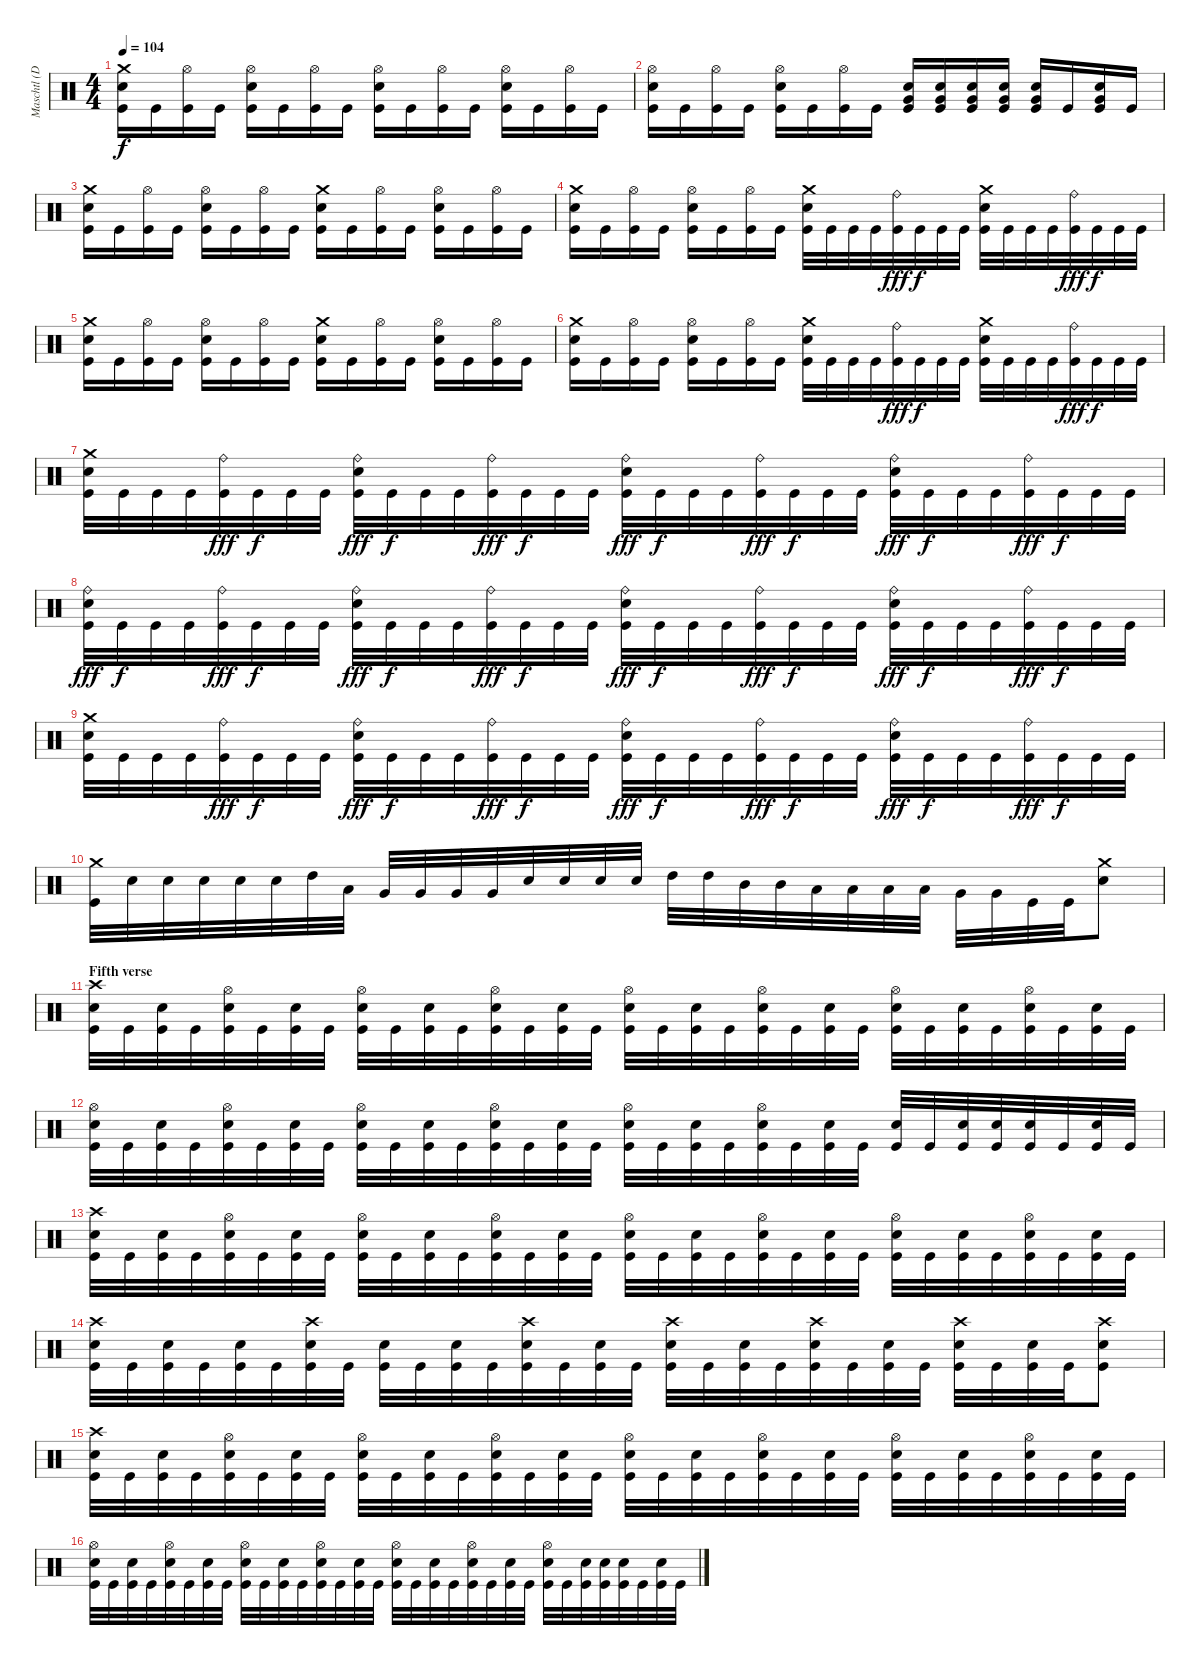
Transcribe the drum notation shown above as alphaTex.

\track ("Maschtl (Drums)" "Maschtl (D") {instrument percussion}
\staff {score}
\articulation defaults
\ts (4 4)
\tempo 104
\clef neutral
\ks c
("Crash medium (hit)" "Electric Snare (hit)" "Kick (hit)").16{dy f} "Kick (hit)".16 ("Hi-Hat (open)" "Kick (hit)").16 "Kick (hit)".16 ("Hi-Hat (open)" "Electric Snare (hit)" "Kick (hit)").16 "Kick (hit)".16 ("Hi-Hat (open)" "Kick (hit)").16 "Kick (hit)".16 ("Hi-Hat (open)" "Electric Snare (hit)" "Kick (hit)").16 "Kick (hit)".16 ("Hi-Hat (open)" "Kick (hit)").16 "Kick (hit)".16 ("Hi-Hat (open)" "Electric Snare (hit)" "Kick (hit)").16 "Kick (hit)".16 ("Hi-Hat (open)" "Kick (hit)").16 "Kick (hit)".16 |
("Hi-Hat (open)" "Electric Snare (hit)" "Kick (hit)").16 "Kick (hit)".16 ("Hi-Hat (open)" "Kick (hit)").16 "Kick (hit)".16 ("Hi-Hat (open)" "Electric Snare (hit)" "Kick (hit)").16 "Kick (hit)".16 ("Hi-Hat (open)" "Kick (hit)").16 "Kick (hit)".16 ("Electric Snare (hit)" "Very Low Tom (hit)" "Kick (hit)").16{bd 60} ("Electric Snare (hit)" "Very Low Tom (hit)" "Kick (hit)").16{bd 60} ("Electric Snare (hit)" "Very Low Tom (hit)" "Kick (hit)").16{bd 60} ("Electric Snare (hit)" "Very Low Tom (hit)" "Kick (hit)").16{bd 60} ("Electric Snare (hit)" "Very Low Tom (hit)" "Kick (hit)").16{bd 60} "Kick (hit)".16 ("Electric Snare (hit)" "Very Low Tom (hit)" "Kick (hit)").16{bd 60} "Kick (hit)".16 |
("Crash medium (hit)" "Electric Snare (hit)" "Kick (hit)").16 "Kick (hit)".16 ("Hi-Hat (open)" "Kick (hit)").16 "Kick (hit)".16 ("Hi-Hat (open)" "Electric Snare (hit)" "Kick (hit)").16 "Kick (hit)".16 ("Hi-Hat (open)" "Kick (hit)").16 "Kick (hit)".16 ("Crash medium (hit)" "Electric Snare (hit)" "Kick (hit)").16 "Kick (hit)".16 ("Hi-Hat (open)" "Kick (hit)").16 "Kick (hit)".16 ("Hi-Hat (open)" "Electric Snare (hit)" "Kick (hit)").16 "Kick (hit)".16 ("Hi-Hat (open)" "Kick (hit)").16 "Kick (hit)".16 |
("Crash medium (hit)" "Electric Snare (hit)" "Kick (hit)").16 "Kick (hit)".16 ("Hi-Hat (open)" "Kick (hit)").16 "Kick (hit)".16 ("Hi-Hat (open)" "Electric Snare (hit)" "Kick (hit)").16 "Kick (hit)".16 ("Hi-Hat (open)" "Kick (hit)").16 "Kick (hit)".16 ("Crash medium (hit)" "Electric Snare (hit)" "Kick (hit)").32 "Kick (hit)".32 "Kick (hit)".32 "Kick (hit)".32 ("Ride (bell)" "Kick (hit)").32{dy fff} "Kick (hit)".32{dy f} "Kick (hit)".32 "Kick (hit)".32 ("Crash medium (hit)" "Electric Snare (hit)" "Kick (hit)").32 "Kick (hit)".32 "Kick (hit)".32 "Kick (hit)".32 ("Ride (bell)" "Kick (hit)").32{dy fff} "Kick (hit)".32{dy f} "Kick (hit)".32 "Kick (hit)".32 |
("Crash medium (hit)" "Electric Snare (hit)" "Kick (hit)").16 "Kick (hit)".16 ("Hi-Hat (open)" "Kick (hit)").16 "Kick (hit)".16 ("Hi-Hat (open)" "Electric Snare (hit)" "Kick (hit)").16 "Kick (hit)".16 ("Hi-Hat (open)" "Kick (hit)").16 "Kick (hit)".16 ("Crash medium (hit)" "Electric Snare (hit)" "Kick (hit)").16 "Kick (hit)".16 ("Hi-Hat (open)" "Kick (hit)").16 "Kick (hit)".16 ("Hi-Hat (open)" "Electric Snare (hit)" "Kick (hit)").16 "Kick (hit)".16 ("Hi-Hat (open)" "Kick (hit)").16 "Kick (hit)".16 |
("Crash medium (hit)" "Electric Snare (hit)" "Kick (hit)").16 "Kick (hit)".16 ("Hi-Hat (open)" "Kick (hit)").16 "Kick (hit)".16 ("Hi-Hat (open)" "Electric Snare (hit)" "Kick (hit)").16 "Kick (hit)".16 ("Hi-Hat (open)" "Kick (hit)").16 "Kick (hit)".16 ("Crash medium (hit)" "Electric Snare (hit)" "Kick (hit)").32 "Kick (hit)".32 "Kick (hit)".32 "Kick (hit)".32 ("Ride (bell)" "Kick (hit)").32{dy fff} "Kick (hit)".32{dy f} "Kick (hit)".32 "Kick (hit)".32 ("Crash medium (hit)" "Electric Snare (hit)" "Kick (hit)").32 "Kick (hit)".32 "Kick (hit)".32 "Kick (hit)".32 ("Ride (bell)" "Kick (hit)").32{dy fff} "Kick (hit)".32{dy f} "Kick (hit)".32 "Kick (hit)".32 |
("Crash medium (hit)" "Electric Snare (hit)" "Kick (hit)").32 "Kick (hit)".32 "Kick (hit)".32 "Kick (hit)".32 ("Ride (bell)" "Kick (hit)").32{dy fff} "Kick (hit)".32{dy f} "Kick (hit)".32 "Kick (hit)".32 ("Ride (bell)" "Electric Snare (hit)" "Kick (hit)").32{dy fff} "Kick (hit)".32{dy f} "Kick (hit)".32 "Kick (hit)".32 ("Ride (bell)" "Kick (hit)").32{dy fff} "Kick (hit)".32{dy f} "Kick (hit)".32 "Kick (hit)".32 ("Ride (bell)" "Electric Snare (hit)" "Kick (hit)").32{dy fff} "Kick (hit)".32{dy f} "Kick (hit)".32 "Kick (hit)".32 ("Ride (bell)" "Kick (hit)").32{dy fff} "Kick (hit)".32{dy f} "Kick (hit)".32 "Kick (hit)".32 ("Ride (bell)" "Electric Snare (hit)" "Kick (hit)").32{dy fff} "Kick (hit)".32{dy f} "Kick (hit)".32 "Kick (hit)".32 ("Ride (bell)" "Kick (hit)").32{dy fff} "Kick (hit)".32{dy f} "Kick (hit)".32 "Kick (hit)".32 |
("Ride (bell)" "Electric Snare (hit)" "Kick (hit)").32{dy fff} "Kick (hit)".32{dy f} "Kick (hit)".32 "Kick (hit)".32 ("Ride (bell)" "Kick (hit)").32{dy fff} "Kick (hit)".32{dy f} "Kick (hit)".32 "Kick (hit)".32 ("Ride (bell)" "Electric Snare (hit)" "Kick (hit)").32{dy fff} "Kick (hit)".32{dy f} "Kick (hit)".32 "Kick (hit)".32 ("Ride (bell)" "Kick (hit)").32{dy fff} "Kick (hit)".32{dy f} "Kick (hit)".32 "Kick (hit)".32 ("Ride (bell)" "Electric Snare (hit)" "Kick (hit)").32{dy fff} "Kick (hit)".32{dy f} "Kick (hit)".32 "Kick (hit)".32 ("Ride (bell)" "Kick (hit)").32{dy fff} "Kick (hit)".32{dy f} "Kick (hit)".32 "Kick (hit)".32 ("Ride (bell)" "Electric Snare (hit)" "Kick (hit)").32{dy fff} "Kick (hit)".32{dy f} "Kick (hit)".32 "Kick (hit)".32 ("Ride (bell)" "Kick (hit)").32{dy fff} "Kick (hit)".32{dy f} "Kick (hit)".32 "Kick (hit)".32 |
("Crash medium (hit)" "Electric Snare (hit)" "Kick (hit)").32 "Kick (hit)".32 "Kick (hit)".32 "Kick (hit)".32 ("Ride (bell)" "Kick (hit)").32{dy fff} "Kick (hit)".32{dy f} "Kick (hit)".32 "Kick (hit)".32 ("Ride (bell)" "Electric Snare (hit)" "Kick (hit)").32{dy fff} "Kick (hit)".32{dy f} "Kick (hit)".32 "Kick (hit)".32 ("Ride (bell)" "Kick (hit)").32{dy fff} "Kick (hit)".32{dy f} "Kick (hit)".32 "Kick (hit)".32 ("Ride (bell)" "Electric Snare (hit)" "Kick (hit)").32{dy fff} "Kick (hit)".32{dy f} "Kick (hit)".32 "Kick (hit)".32 ("Ride (bell)" "Kick (hit)").32{dy fff} "Kick (hit)".32{dy f} "Kick (hit)".32 "Kick (hit)".32 ("Ride (bell)" "Electric Snare (hit)" "Kick (hit)").32{dy fff} "Kick (hit)".32{dy f} "Kick (hit)".32 "Kick (hit)".32 ("Ride (bell)" "Kick (hit)").32{dy fff} "Kick (hit)".32{dy f} "Kick (hit)".32 "Kick (hit)".32 |
("Crash medium (hit)" "Kick (hit)").32 "Electric Snare (hit)".32 "Electric Snare (hit)".32 "Electric Snare (hit)".32 "Electric Snare (hit)".32 "Electric Snare (hit)".32 "High Tom (hit)".32 "Low Tom (hit)".32 "Very Low Tom (hit)".32 "Very Low Tom (hit)".32 "Very Low Tom (hit)".32 "Very Low Tom (hit)".32 "Electric Snare (hit)".32 "Electric Snare (hit)".32 "Electric Snare (hit)".32 "Electric Snare (hit)".32 "High Tom (hit)".32 "High Tom (hit)".32 "Mid Tom (hit)".32 "Mid Tom (hit)".32 "Low Tom (hit)".32 "Low Tom (hit)".32 "Low Tom (hit)".32 "Low Tom (hit)".32 "Very Low Tom (hit)".32 "Very Low Tom (hit)".32 "Kick (hit)".32 "Kick (hit)".32 ("Crash medium (hit)" "Electric Snare (hit)").8 |
\section ("" "Fifth verse")
("Crash high (hit)" "Electric Snare (hit)" "Kick (hit)").32 "Kick (hit)".32 ("Electric Snare (hit)" "Kick (hit)").32 "Kick (hit)".32 ("Hi-Hat (open)" "Electric Snare (hit)" "Kick (hit)").32 "Kick (hit)".32 ("Electric Snare (hit)" "Kick (hit)").32 "Kick (hit)".32 ("Hi-Hat (open)" "Electric Snare (hit)" "Kick (hit)").32 "Kick (hit)".32 ("Electric Snare (hit)" "Kick (hit)").32 "Kick (hit)".32 ("Hi-Hat (open)" "Electric Snare (hit)" "Kick (hit)").32 "Kick (hit)".32 ("Electric Snare (hit)" "Kick (hit)").32 "Kick (hit)".32 ("Hi-Hat (open)" "Electric Snare (hit)" "Kick (hit)").32 "Kick (hit)".32 ("Electric Snare (hit)" "Kick (hit)").32 "Kick (hit)".32 ("Hi-Hat (open)" "Electric Snare (hit)" "Kick (hit)").32 "Kick (hit)".32 ("Electric Snare (hit)" "Kick (hit)").32 "Kick (hit)".32 ("Hi-Hat (open)" "Electric Snare (hit)" "Kick (hit)").32 "Kick (hit)".32 ("Electric Snare (hit)" "Kick (hit)").32 "Kick (hit)".32 ("Hi-Hat (open)" "Electric Snare (hit)" "Kick (hit)").32 "Kick (hit)".32 ("Electric Snare (hit)" "Kick (hit)").32 "Kick (hit)".32 |
("Hi-Hat (open)" "Electric Snare (hit)" "Kick (hit)").32 "Kick (hit)".32 ("Electric Snare (hit)" "Kick (hit)").32 "Kick (hit)".32 ("Hi-Hat (open)" "Electric Snare (hit)" "Kick (hit)").32 "Kick (hit)".32 ("Electric Snare (hit)" "Kick (hit)").32 "Kick (hit)".32 ("Hi-Hat (open)" "Electric Snare (hit)" "Kick (hit)").32 "Kick (hit)".32 ("Electric Snare (hit)" "Kick (hit)").32 "Kick (hit)".32 ("Hi-Hat (open)" "Electric Snare (hit)" "Kick (hit)").32 "Kick (hit)".32 ("Electric Snare (hit)" "Kick (hit)").32 "Kick (hit)".32 ("Hi-Hat (open)" "Electric Snare (hit)" "Kick (hit)").32 "Kick (hit)".32 ("Electric Snare (hit)" "Kick (hit)").32 "Kick (hit)".32 ("Hi-Hat (open)" "Electric Snare (hit)" "Kick (hit)").32 "Kick (hit)".32 ("Electric Snare (hit)" "Kick (hit)").32 "Kick (hit)".32 ("Electric Snare (hit)" "Kick (hit)").32 "Kick (hit)".32 ("Electric Snare (hit)" "Kick (hit)").32 ("Electric Snare (hit)" "Kick (hit)").32 ("Electric Snare (hit)" "Kick (hit)").32 "Kick (hit)".32 ("Electric Snare (hit)" "Kick (hit)").32 "Kick (hit)".32 |
("Crash high (hit)" "Electric Snare (hit)" "Kick (hit)").32 "Kick (hit)".32 ("Electric Snare (hit)" "Kick (hit)").32 "Kick (hit)".32 ("Hi-Hat (open)" "Electric Snare (hit)" "Kick (hit)").32 "Kick (hit)".32 ("Electric Snare (hit)" "Kick (hit)").32 "Kick (hit)".32 ("Hi-Hat (open)" "Electric Snare (hit)" "Kick (hit)").32 "Kick (hit)".32 ("Electric Snare (hit)" "Kick (hit)").32 "Kick (hit)".32 ("Hi-Hat (open)" "Electric Snare (hit)" "Kick (hit)").32 "Kick (hit)".32 ("Electric Snare (hit)" "Kick (hit)").32 "Kick (hit)".32 ("Hi-Hat (open)" "Electric Snare (hit)" "Kick (hit)").32 "Kick (hit)".32 ("Electric Snare (hit)" "Kick (hit)").32 "Kick (hit)".32 ("Hi-Hat (open)" "Electric Snare (hit)" "Kick (hit)").32 "Kick (hit)".32 ("Electric Snare (hit)" "Kick (hit)").32 "Kick (hit)".32 ("Hi-Hat (open)" "Electric Snare (hit)" "Kick (hit)").32 "Kick (hit)".32 ("Electric Snare (hit)" "Kick (hit)").32 "Kick (hit)".32 ("Hi-Hat (open)" "Electric Snare (hit)" "Kick (hit)").32 "Kick (hit)".32 ("Electric Snare (hit)" "Kick (hit)").32 "Kick (hit)".32 |
("Crash high (hit)" "Electric Snare (hit)" "Kick (hit)").32 "Kick (hit)".32 ("Electric Snare (hit)" "Kick (hit)").32 "Kick (hit)".32 ("Electric Snare (hit)" "Kick (hit)").32 "Kick (hit)".32 ("Crash high (hit)" "Electric Snare (hit)" "Kick (hit)").32 "Kick (hit)".32 ("Electric Snare (hit)" "Kick (hit)").32 "Kick (hit)".32 ("Electric Snare (hit)" "Kick (hit)").32 "Kick (hit)".32 ("Crash high (hit)" "Electric Snare (hit)" "Kick (hit)").32 "Kick (hit)".32 ("Electric Snare (hit)" "Kick (hit)").32 "Kick (hit)".32 ("Crash high (hit)" "Electric Snare (hit)" "Kick (hit)").32 "Kick (hit)".32 ("Electric Snare (hit)" "Kick (hit)").32 "Kick (hit)".32 ("Crash high (hit)" "Electric Snare (hit)" "Kick (hit)").32 "Kick (hit)".32 ("Electric Snare (hit)" "Kick (hit)").32 "Kick (hit)".32 ("Crash high (hit)" "Electric Snare (hit)" "Kick (hit)").32 "Kick (hit)".32 ("Electric Snare (hit)" "Kick (hit)").32 "Kick (hit)".32 ("Crash high (hit)" "Electric Snare (hit)" "Kick (hit)").8 |
("Crash high (hit)" "Electric Snare (hit)" "Kick (hit)").32 "Kick (hit)".32 ("Electric Snare (hit)" "Kick (hit)").32 "Kick (hit)".32 ("Hi-Hat (open)" "Electric Snare (hit)" "Kick (hit)").32 "Kick (hit)".32 ("Electric Snare (hit)" "Kick (hit)").32 "Kick (hit)".32 ("Hi-Hat (open)" "Electric Snare (hit)" "Kick (hit)").32 "Kick (hit)".32 ("Electric Snare (hit)" "Kick (hit)").32 "Kick (hit)".32 ("Hi-Hat (open)" "Electric Snare (hit)" "Kick (hit)").32 "Kick (hit)".32 ("Electric Snare (hit)" "Kick (hit)").32 "Kick (hit)".32 ("Hi-Hat (open)" "Electric Snare (hit)" "Kick (hit)").32 "Kick (hit)".32 ("Electric Snare (hit)" "Kick (hit)").32 "Kick (hit)".32 ("Hi-Hat (open)" "Electric Snare (hit)" "Kick (hit)").32 "Kick (hit)".32 ("Electric Snare (hit)" "Kick (hit)").32 "Kick (hit)".32 ("Hi-Hat (open)" "Electric Snare (hit)" "Kick (hit)").32 "Kick (hit)".32 ("Electric Snare (hit)" "Kick (hit)").32 "Kick (hit)".32 ("Hi-Hat (open)" "Electric Snare (hit)" "Kick (hit)").32 "Kick (hit)".32 ("Electric Snare (hit)" "Kick (hit)").32 "Kick (hit)".32 |
("Hi-Hat (open)" "Electric Snare (hit)" "Kick (hit)").32 "Kick (hit)".32 ("Electric Snare (hit)" "Kick (hit)").32 "Kick (hit)".32 ("Hi-Hat (open)" "Electric Snare (hit)" "Kick (hit)").32 "Kick (hit)".32 ("Electric Snare (hit)" "Kick (hit)").32 "Kick (hit)".32 ("Hi-Hat (open)" "Electric Snare (hit)" "Kick (hit)").32 "Kick (hit)".32 ("Electric Snare (hit)" "Kick (hit)").32 "Kick (hit)".32 ("Hi-Hat (open)" "Electric Snare (hit)" "Kick (hit)").32 "Kick (hit)".32 ("Electric Snare (hit)" "Kick (hit)").32 "Kick (hit)".32 ("Hi-Hat (open)" "Electric Snare (hit)" "Kick (hit)").32 "Kick (hit)".32 ("Electric Snare (hit)" "Kick (hit)").32 "Kick (hit)".32 ("Hi-Hat (open)" "Electric Snare (hit)" "Kick (hit)").32 "Kick (hit)".32 ("Electric Snare (hit)" "Kick (hit)").32 "Kick (hit)".32 ("Hi-Hat (open)" "Electric Snare (hit)" "Kick (hit)").32 "Kick (hit)".32 ("Electric Snare (hit)" "Kick (hit)").32 ("Electric Snare (hit)" "Kick (hit)").32 ("Electric Snare (hit)" "Kick (hit)").32 "Kick (hit)".32 ("Electric Snare (hit)" "Kick (hit)").32 "Kick (hit)".32
